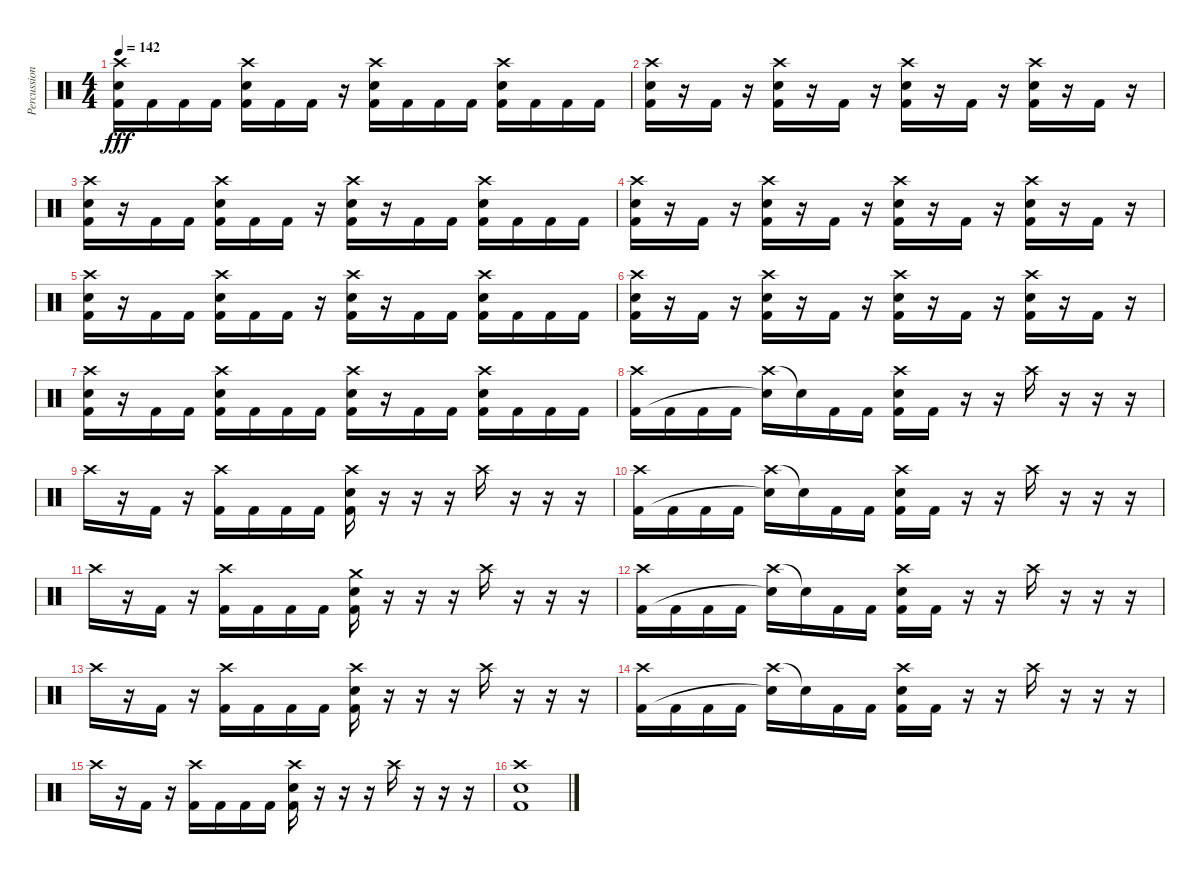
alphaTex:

\track ("Percussion" "Percussion") {instrument percussion}
\staff {score}
\articulation defaults
\ts (4 4)
\tempo 142
\clef neutral
\ks c
("Crash high (hit)" "Electric Snare (hit)" "Kick (hit) 2").16{dy fff} "Kick (hit) 2".16 "Kick (hit) 2".16 "Kick (hit) 2".16 ("Crash high (hit)" "Electric Snare (hit)" "Kick (hit) 2").16 "Kick (hit) 2".16 "Kick (hit) 2".16 r.16 ("Crash high (hit)" "Electric Snare (hit)" "Kick (hit) 2").16 "Kick (hit) 2".16 "Kick (hit) 2".16 "Kick (hit) 2".16 ("Crash high (hit)" "Electric Snare (hit)" "Kick (hit) 2").16 "Kick (hit) 2".16 "Kick (hit) 2".16 "Kick (hit) 2".16 |
("Crash high (hit)" "Electric Snare (hit)" "Kick (hit) 2").16 r.16 "Kick (hit) 2".16 r.16 ("Crash high (hit)" "Electric Snare (hit)" "Kick (hit) 2").16 r.16 "Kick (hit) 2".16 r.16 ("Crash high (hit)" "Electric Snare (hit)" "Kick (hit) 2").16 r.16 "Kick (hit) 2".16 r.16 ("Crash high (hit)" "Electric Snare (hit)" "Kick (hit) 2").16 r.16 "Kick (hit) 2".16 r.16 |
("Crash high (hit)" "Electric Snare (hit)" "Kick (hit) 2").16 r.16 "Kick (hit) 2".16 "Kick (hit) 2".16 ("Crash high (hit)" "Electric Snare (hit)" "Kick (hit) 2").16 "Kick (hit) 2".16 "Kick (hit) 2".16 r.16 ("Crash high (hit)" "Electric Snare (hit)" "Kick (hit) 2").16 r.16 "Kick (hit) 2".16 "Kick (hit) 2".16 ("Crash high (hit)" "Electric Snare (hit)" "Kick (hit) 2").16 "Kick (hit) 2".16 "Kick (hit) 2".16 "Kick (hit) 2".16 |
("Crash high (hit)" "Electric Snare (hit)" "Kick (hit) 2").16 r.16 "Kick (hit) 2".16 r.16 ("Crash high (hit)" "Electric Snare (hit)" "Kick (hit) 2").16 r.16 "Kick (hit) 2".16 r.16 ("Crash high (hit)" "Electric Snare (hit)" "Kick (hit) 2").16 r.16 "Kick (hit) 2".16 r.16 ("Crash high (hit)" "Electric Snare (hit)" "Kick (hit) 2").16 r.16 "Kick (hit) 2".16 r.16 |
("Crash high (hit)" "Electric Snare (hit)" "Kick (hit) 2").16 r.16 "Kick (hit) 2".16 "Kick (hit) 2".16 ("Crash high (hit)" "Electric Snare (hit)" "Kick (hit) 2").16 "Kick (hit) 2".16 "Kick (hit) 2".16 r.16 ("Crash high (hit)" "Electric Snare (hit)" "Kick (hit) 2").16 r.16 "Kick (hit) 2".16 "Kick (hit) 2".16 ("Crash high (hit)" "Electric Snare (hit)" "Kick (hit) 2").16 "Kick (hit) 2".16 "Kick (hit) 2".16 "Kick (hit) 2".16 |
("Crash high (hit)" "Electric Snare (hit)" "Kick (hit) 2").16 r.16 "Kick (hit) 2".16 r.16 ("Crash high (hit)" "Electric Snare (hit)" "Kick (hit) 2").16 r.16 "Kick (hit) 2".16 r.16 ("Crash high (hit)" "Electric Snare (hit)" "Kick (hit) 2").16 r.16 "Kick (hit) 2".16 r.16 ("Crash high (hit)" "Electric Snare (hit)" "Kick (hit) 2").16 r.16 "Kick (hit) 2".16 r.16 |
("Crash high (hit)" "Electric Snare (hit)" "Kick (hit) 2").16 r.16 "Kick (hit) 2".16 "Kick (hit) 2".16 ("Crash high (hit)" "Electric Snare (hit)" "Kick (hit) 2").16 "Kick (hit) 2".16 "Kick (hit) 2".16 "Kick (hit) 2".16 ("Crash high (hit)" "Electric Snare (hit)" "Kick (hit) 2").16 r.16 "Kick (hit) 2".16 "Kick (hit) 2".16 ("Crash high (hit)" "Electric Snare (hit)" "Kick (hit) 2").16 "Kick (hit) 2".16 "Kick (hit) 2".16 "Kick (hit) 2".16 |
("Crash high (hit)" "Kick (hit) 2").16 "Kick (hit) 2".16 "Kick (hit) 2".16 "Kick (hit) 2".16 ("Crash high (hit)" "Snare (hit)"{t}).16 "Snare (hit)"{t}.16 "Kick (hit) 2".16 "Kick (hit) 2".16 ("Crash high (hit)" "Electric Snare (hit)" "Kick (hit) 2").16 "Kick (hit) 2".16 r.16 r.16 "Crash high (hit)".16 r.16 r.16 r.16 |
"Crash high (hit)".16 r.16 "Kick (hit) 2".16 r.16 ("Crash high (hit)" "Kick (hit) 2").16 "Kick (hit) 2".16 "Kick (hit) 2".16 "Kick (hit) 2".16 ("Crash high (hit)" "Electric Snare (hit)" "Kick (hit) 2").16 r.16 r.16 r.16 "Crash high (hit)".16 r.16 r.16 r.16 |
("Crash high (hit)" "Kick (hit) 2").16 "Kick (hit) 2".16 "Kick (hit) 2".16 "Kick (hit) 2".16 ("Crash high (hit)" "Snare (hit)"{t}).16 "Snare (hit)"{t}.16 "Kick (hit) 2".16 "Kick (hit) 2".16 ("Crash high (hit)" "Electric Snare (hit)" "Kick (hit) 2").16 "Kick (hit) 2".16 r.16 r.16 "Crash high (hit)".16 r.16 r.16 r.16 |
"Crash high (hit)".16 r.16 "Kick (hit) 2".16 r.16 ("Crash high (hit)" "Kick (hit) 2").16 "Kick (hit) 2".16 "Kick (hit) 2".16 "Kick (hit) 2".16 ("Crash medium (hit)" "Electric Snare (hit)" "Kick (hit) 2").16 r.16 r.16 r.16 "Crash high (hit)".16 r.16 r.16 r.16 |
("Crash high (hit)" "Kick (hit) 2").16 "Kick (hit) 2".16 "Kick (hit) 2".16 "Kick (hit) 2".16 ("Crash high (hit)" "Snare (hit)"{t}).16 "Snare (hit)"{t}.16 "Kick (hit) 2".16 "Kick (hit) 2".16 ("Crash high (hit)" "Electric Snare (hit)" "Kick (hit) 2").16 "Kick (hit) 2".16 r.16 r.16 "Crash high (hit)".16 r.16 r.16 r.16 |
"Crash high (hit)".16 r.16 "Kick (hit) 2".16 r.16 ("Crash high (hit)" "Kick (hit) 2").16 "Kick (hit) 2".16 "Kick (hit) 2".16 "Kick (hit) 2".16 ("Crash high (hit)" "Electric Snare (hit)" "Kick (hit) 2").16 r.16 r.16 r.16 "Crash high (hit)".16 r.16 r.16 r.16 |
("Crash high (hit)" "Kick (hit) 2").16 "Kick (hit) 2".16 "Kick (hit) 2".16 "Kick (hit) 2".16 ("Crash high (hit)" "Snare (hit)"{t}).16 "Snare (hit)"{t}.16 "Kick (hit) 2".16 "Kick (hit) 2".16 ("Crash high (hit)" "Electric Snare (hit)" "Kick (hit) 2").16 "Kick (hit) 2".16 r.16 r.16 "Crash high (hit)".16 r.16 r.16 r.16 |
"Crash high (hit)".16 r.16 "Kick (hit) 2".16 r.16 ("Crash high (hit)" "Kick (hit) 2").16 "Kick (hit) 2".16 "Kick (hit) 2".16 "Kick (hit) 2".16 ("Crash high (hit)" "Electric Snare (hit)" "Kick (hit) 2").16 r.16 r.16 r.16 "Crash high (hit)".16 r.16 r.16 r.16 |
("Crash high (hit)" "Electric Snare (hit)" "Kick (hit) 2").1
